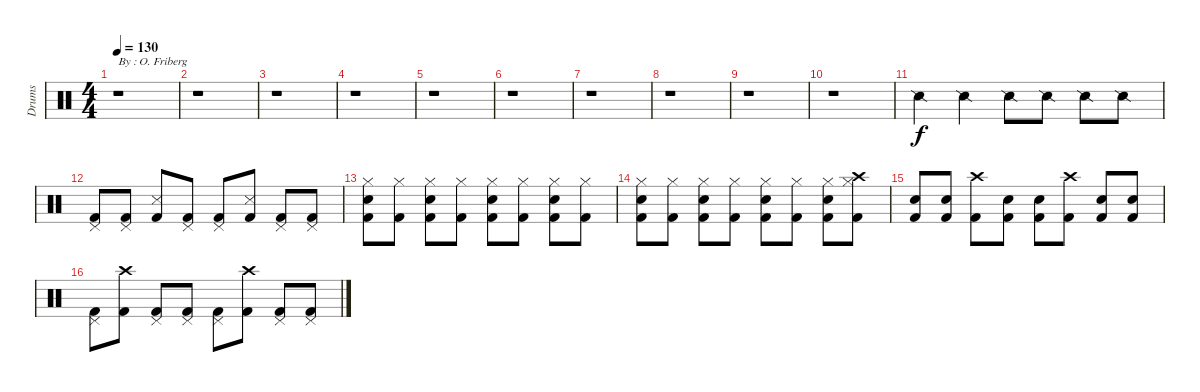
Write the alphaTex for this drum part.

\track ("Drums" "Drums") {instrument percussion}
\staff {score}
\articulation defaults
\ts (4 4)
\tempo 130
\clef neutral
\ks c
r.1{txt "By : O. Friberg" dy f} |
r.1 |
r.1 |
r.1 |
r.1 |
r.1 |
r.1 |
r.1 |
r.1 |
r.1 |
"Snare (side stick) 2".4 "Snare (side stick) 2".4 "Snare (side stick) 2".8 "Snare (side stick) 2".8 "Snare (side stick) 2".8 "Snare (side stick) 2".8 |
("Pedal Hi-Hat (hit)" "Kick (hit) 2").8 ("Pedal Hi-Hat (hit)" "Kick (hit) 2").8 ("Snare (side stick) 3" "Kick (hit) 2").8 ("Pedal Hi-Hat (hit)" "Kick (hit) 2").8 ("Pedal Hi-Hat (hit)" "Kick (hit) 2").8 ("Snare (side stick) 3" "Kick (hit) 2").8 ("Pedal Hi-Hat (hit)" "Kick (hit) 2").8 ("Pedal Hi-Hat (hit)" "Kick (hit) 2").8 |
("Electric Snare (hit)" "Hi-Hat (closed)" "Kick (hit) 2").8 ("Hi-Hat (closed)" "Kick (hit) 2").8 ("Electric Snare (hit)" "Hi-Hat (closed)" "Kick (hit) 2").8 ("Hi-Hat (closed)" "Kick (hit) 2").8 ("Electric Snare (hit)" "Hi-Hat (closed)" "Kick (hit) 2").8 ("Hi-Hat (closed)" "Kick (hit) 2").8 ("Electric Snare (hit)" "Hi-Hat (closed)" "Kick (hit) 2").8 ("Hi-Hat (closed)" "Kick (hit) 2").8 |
("Electric Snare (hit)" "Hi-Hat (closed)" "Kick (hit) 2").8 ("Hi-Hat (closed)" "Kick (hit) 2").8 ("Electric Snare (hit)" "Hi-Hat (closed)" "Kick (hit) 2").8 ("Hi-Hat (closed)" "Kick (hit) 2").8 ("Electric Snare (hit)" "Hi-Hat (closed)" "Kick (hit) 2").8 ("Hi-Hat (closed)" "Kick (hit) 2").8 ("Electric Snare (hit)" "Hi-Hat (closed)" "Kick (hit) 2").8 ("Crash high (hit)" "Hi-Hat (closed)" "Kick (hit) 2").8 |
("Kick (hit) 2" "Snare (hit) 2").8 ("Kick (hit) 2" "Snare (hit) 2").8 ("Kick (hit) 2" "Crash high (hit)").8 ("Kick (hit) 2" "Snare (hit) 2").8 ("Kick (hit) 2" "Snare (hit) 2").8 ("Kick (hit) 2" "Crash high (hit)").8 ("Kick (hit) 2" "Snare (hit) 2").8 ("Kick (hit) 2" "Snare (hit) 2").8 |
("Pedal Hi-Hat (hit)" "Kick (hit) 2").8 ("Crash high (hit)" "Kick (hit) 2").8 ("Pedal Hi-Hat (hit)" "Kick (hit) 2").8 ("Pedal Hi-Hat (hit)" "Kick (hit) 2").8 ("Pedal Hi-Hat (hit)" "Kick (hit) 2").8 ("Crash high (hit)" "Kick (hit) 2").8 ("Pedal Hi-Hat (hit)" "Kick (hit) 2").8 ("Pedal Hi-Hat (hit)" "Kick (hit) 2").8
